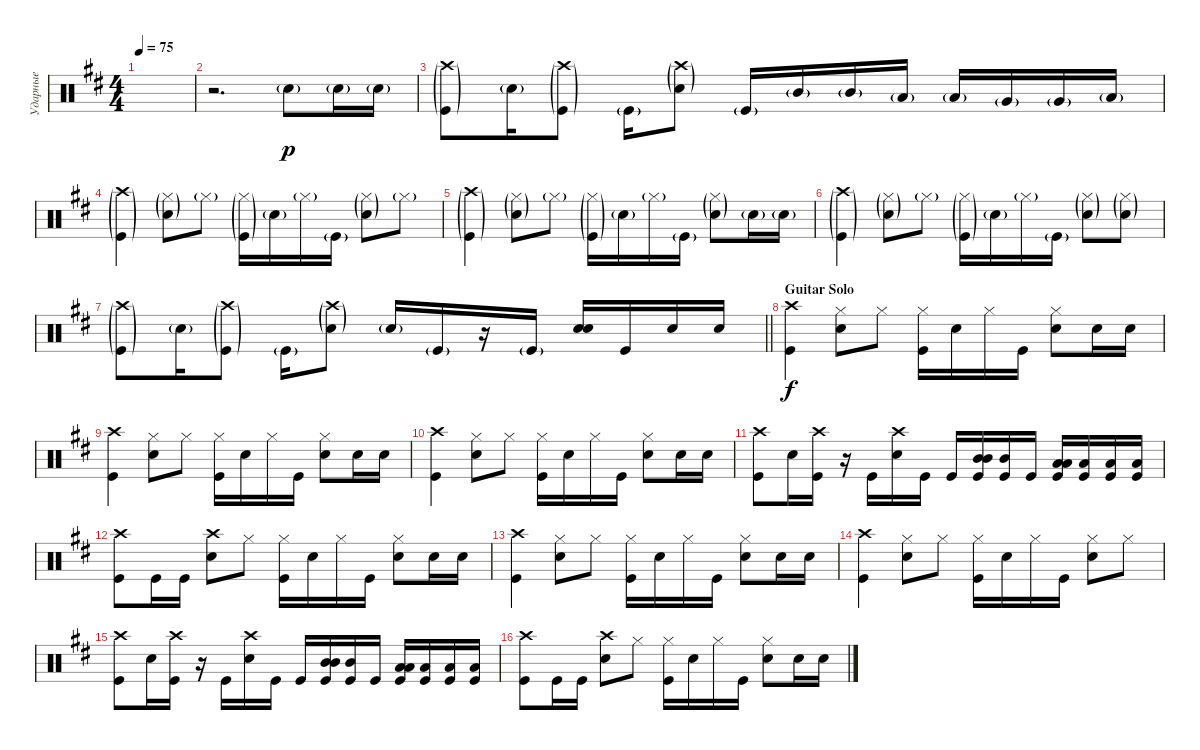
\track ("Ударные" "Ударные") {instrument percussion}
\staff {score}
\articulation defaults
\ts (4 4)
\tempo 75
\clef neutral
\ks bminor
|
r.2{d} "Snare (hit) 2"{g}.8{dy p} "Snare (hit) 2"{g}.16 "Snare (hit) 2"{g}.16 |
("Kick (hit)"{g} "Crash high (hit)"{g}).8 "Snare (hit) 2"{g}.16 ("Kick (hit)"{g} "Crash high (hit)"{g}).8 "Kick (hit)"{g}.16 ("Crash high (hit)"{g} "Snare (hit) 2"{g}).8 "Kick (hit)"{g}.16 "Mid Tom (hit)"{g}.16 "Mid Tom (hit)"{g}.16 "Low Tom (hit)"{g}.16 "Low Tom (hit)"{g}.16 "Very Low Tom (hit)"{g}.16 "Very Low Tom (hit)"{g}.16 "Low Floor Tom (hit)"{g}.16 |
("Crash high (hit)"{g} "Kick (hit)"{g}).4 ("Snare (hit) 2"{g} "Hi-Hat (closed)"{g}).8 "Hi-Hat (closed)"{g}.8 ("Kick (hit)"{g} "Hi-Hat (closed)"{g}).16 "Snare (hit) 2"{g}.16 "Hi-Hat (closed)"{g}.16 "Kick (hit)"{g}.16 ("Snare (hit) 2"{g} "Hi-Hat (closed)"{g}).8 "Hi-Hat (closed)"{g}.8 |
("Crash high (hit)"{g} "Kick (hit)"{g}).4 ("Snare (hit) 2"{g} "Hi-Hat (closed)"{g}).8 "Hi-Hat (closed)"{g}.8 ("Kick (hit)"{g} "Hi-Hat (closed)"{g}).16 "Snare (hit) 2"{g}.16 "Hi-Hat (closed)"{g}.16 "Kick (hit)"{g}.16 ("Snare (hit) 2"{g} "Hi-Hat (closed)"{g}).8 "Snare (hit) 2"{g}.16 "Snare (hit) 2"{g}.16 |
("Crash high (hit)"{g} "Kick (hit)"{g}).4 ("Snare (hit) 2"{g} "Hi-Hat (closed)"{g}).8 "Hi-Hat (closed)"{g}.8 ("Kick (hit)"{g} "Hi-Hat (closed)"{g}).16 "Snare (hit) 2"{g}.16 "Hi-Hat (closed)"{g}.16 "Kick (hit)"{g}.16 ("Snare (hit) 2"{g} "Hi-Hat (closed)"{g}).8 ("Snare (hit) 2"{g} "Hi-Hat (closed)"{g}).8 |
\barLineRight lightlight
("Kick (hit)"{g} "Crash high (hit)"{g}).8 "Snare (hit) 2"{g}.16 ("Kick (hit)"{g} "Crash high (hit)"{g}).8 "Kick (hit)"{g}.16 ("Crash high (hit)"{g} "Snare (hit) 2"{g}).8 "Snare (hit) 2"{g}.16 "Kick (hit)"{g}.16 r.16 "Kick (hit)"{g}.16 ("Snare (hit) 2" "Snare (hit) 2").16{bd 240} "Kick (hit)".16 "Snare (hit) 2".16 "Snare (hit) 2".16 |
\section ("" "Guitar Solo")
("Crash high (hit)" "Kick (hit)").4{dy f} ("Snare (hit) 2" "Hi-Hat (closed)").8 "Hi-Hat (closed)".8 ("Kick (hit)" "Hi-Hat (closed)").16 "Snare (hit) 2".16 "Hi-Hat (closed)".16 "Kick (hit)".16 ("Snare (hit) 2" "Hi-Hat (closed)").8 "Snare (hit) 2".16 "Snare (hit) 2".16 |
("Crash high (hit)" "Kick (hit)").4 ("Snare (hit) 2" "Hi-Hat (closed)").8 "Hi-Hat (closed)".8 ("Kick (hit)" "Hi-Hat (closed)").16 "Snare (hit) 2".16 "Hi-Hat (closed)".16 "Kick (hit)".16 ("Snare (hit) 2" "Hi-Hat (closed)").8 "Snare (hit) 2".16 "Snare (hit) 2".16 |
("Crash high (hit)" "Kick (hit)").4 ("Snare (hit) 2" "Hi-Hat (closed)").8 "Hi-Hat (closed)".8 ("Kick (hit)" "Hi-Hat (closed)").16 "Snare (hit) 2".16 "Hi-Hat (closed)".16 "Kick (hit)".16 ("Snare (hit) 2" "Hi-Hat (closed)").8 "Snare (hit) 2".16 "Snare (hit) 2".16 |
("Kick (hit)" "Crash high (hit)").8 "Snare (hit) 2".16 ("Kick (hit)" "Crash high (hit)").16 r.16 "Kick (hit)".16 ("Crash high (hit)" "Snare (hit) 2").16 "Kick (hit)".16 "Kick (hit)".16 ("Mid Tom (hit)" "Kick (hit)" "Mid Tom (hit)").16{bd 120} ("Mid Tom (hit)" "Kick (hit)").16 "Kick (hit)".16 ("Low Tom (hit)" "Low Tom (hit)" "Kick (hit)").16{bd 120} ("Kick (hit)" "Low Tom (hit)").16{bd 120} ("Low Tom (hit)" "Kick (hit)").16 ("Low Tom (hit)" "Kick (hit)").16 |
("Crash high (hit)" "Kick (hit)").8 "Kick (hit)".16 "Kick (hit)".16 ("Snare (hit) 2" "Crash high (hit)").8 "Hi-Hat (closed)".8 ("Kick (hit)" "Hi-Hat (closed)").16 "Snare (hit) 2".16 "Hi-Hat (closed)".16 "Kick (hit)".16 ("Snare (hit) 2" "Hi-Hat (closed)").8 "Snare (hit) 2".16 "Snare (hit) 2".16 |
("Crash high (hit)" "Kick (hit)").4 ("Snare (hit) 2" "Hi-Hat (closed)").8 "Hi-Hat (closed)".8 ("Kick (hit)" "Hi-Hat (closed)").16 "Snare (hit) 2".16 "Hi-Hat (closed)".16 "Kick (hit)".16 ("Snare (hit) 2" "Hi-Hat (closed)").8 "Snare (hit) 2".16 "Snare (hit) 2".16 |
("Crash high (hit)" "Kick (hit)").4 ("Snare (hit) 2" "Hi-Hat (closed)").8 "Hi-Hat (closed)".8 ("Kick (hit)" "Hi-Hat (closed)").16 "Snare (hit) 2".16 "Hi-Hat (closed)".16 "Kick (hit)".16 ("Snare (hit) 2" "Hi-Hat (closed)").8 "Hi-Hat (closed)".8 |
("Kick (hit)" "Crash high (hit)").8 "Snare (hit) 2".16 ("Kick (hit)" "Crash high (hit)").16 r.16 "Kick (hit)".16 ("Crash high (hit)" "Snare (hit) 2").16 "Kick (hit)".16 "Kick (hit)".16 ("Mid Tom (hit)" "Kick (hit)" "Mid Tom (hit)").16{bd 120} ("Mid Tom (hit)" "Kick (hit)").16 "Kick (hit)".16 ("Low Tom (hit)" "Low Tom (hit)" "Kick (hit)").16{bd 120} ("Kick (hit)" "Low Tom (hit)").16{bd 120} ("Low Tom (hit)" "Kick (hit)").16 ("Low Tom (hit)" "Kick (hit)").16 |
("Crash high (hit)" "Kick (hit)").8 "Kick (hit)".16 "Kick (hit)".16 ("Snare (hit) 2" "Crash high (hit)").8 "Hi-Hat (closed)".8 ("Kick (hit)" "Hi-Hat (closed)").16 "Snare (hit) 2".16 "Hi-Hat (closed)".16 "Kick (hit)".16 ("Snare (hit) 2" "Hi-Hat (closed)").8 "Snare (hit) 2".16 "Snare (hit) 2".16
